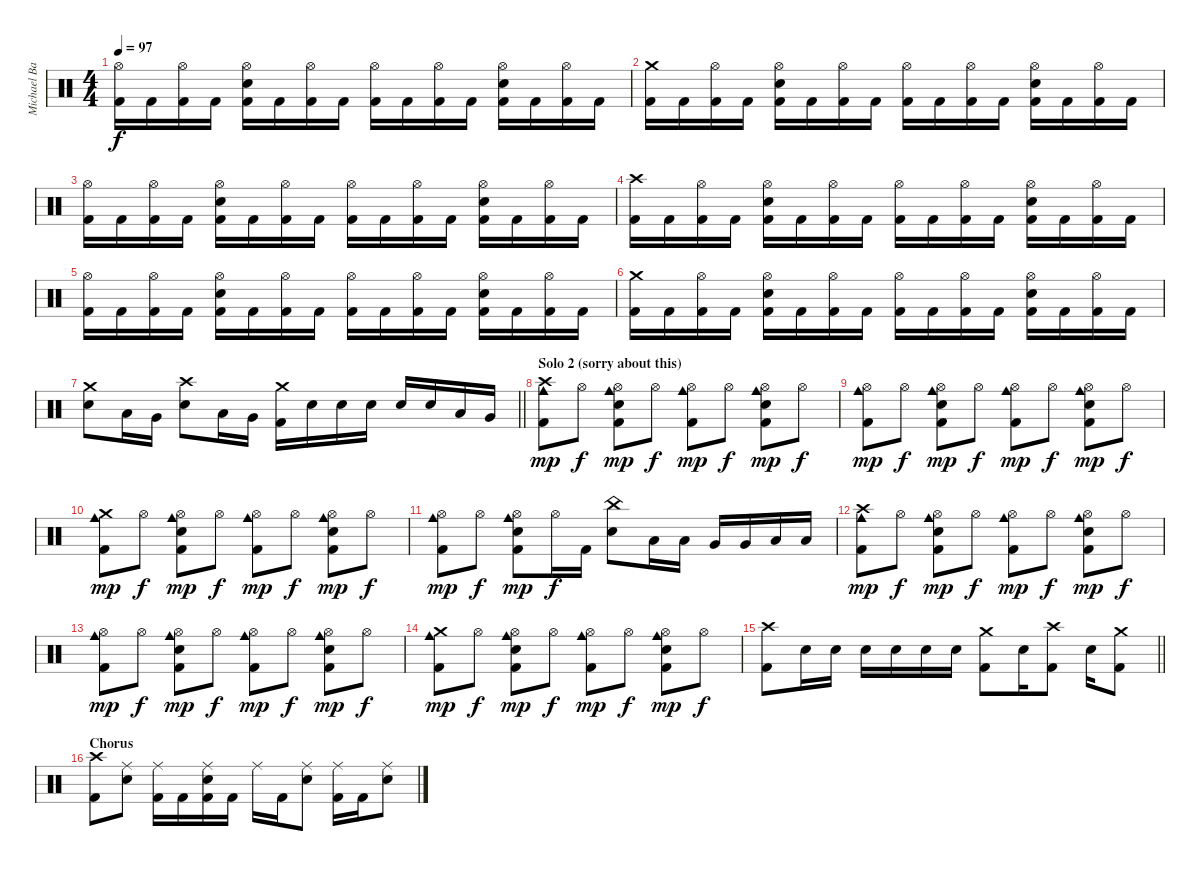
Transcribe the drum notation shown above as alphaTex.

\track ("Michael Bartlett" "Michael Ba") {instrument percussion}
\staff {score}
\articulation defaults
\ts (4 4)
\tempo 97
\clef neutral
\ks c
("Hi-Hat (open)" "Kick (hit) 2").16{dy f} "Kick (hit) 2".16 ("Hi-Hat (open)" "Kick (hit) 2").16 "Kick (hit) 2".16 ("Snare (hit) 2" "Hi-Hat (open)" "Kick (hit) 2").16 "Kick (hit) 2".16 ("Hi-Hat (open)" "Kick (hit) 2").16 "Kick (hit) 2".16 ("Hi-Hat (open)" "Kick (hit) 2").16 "Kick (hit) 2".16 ("Hi-Hat (open)" "Kick (hit) 2").16 "Kick (hit) 2".16 ("Snare (hit) 2" "Hi-Hat (open)" "Kick (hit) 2").16 "Kick (hit) 2".16 ("Hi-Hat (open)" "Kick (hit) 2").16 "Kick (hit) 2".16 |
("Crash medium (hit)" "Kick (hit) 2").16 "Kick (hit) 2".16 ("Hi-Hat (open)" "Kick (hit) 2").16 "Kick (hit) 2".16 ("Snare (hit) 2" "Hi-Hat (open)" "Kick (hit) 2").16 "Kick (hit) 2".16 ("Hi-Hat (open)" "Kick (hit) 2").16 "Kick (hit) 2".16 ("Hi-Hat (open)" "Kick (hit) 2").16 "Kick (hit) 2".16 ("Hi-Hat (open)" "Kick (hit) 2").16 "Kick (hit) 2".16 ("Snare (hit) 2" "Hi-Hat (open)" "Kick (hit) 2").16 "Kick (hit) 2".16 ("Hi-Hat (open)" "Kick (hit) 2").16 "Kick (hit) 2".16 |
("Hi-Hat (open)" "Kick (hit) 2").16 "Kick (hit) 2".16 ("Hi-Hat (open)" "Kick (hit) 2").16 "Kick (hit) 2".16 ("Snare (hit) 2" "Hi-Hat (open)" "Kick (hit) 2").16 "Kick (hit) 2".16 ("Hi-Hat (open)" "Kick (hit) 2").16 "Kick (hit) 2".16 ("Hi-Hat (open)" "Kick (hit) 2").16 "Kick (hit) 2".16 ("Hi-Hat (open)" "Kick (hit) 2").16 "Kick (hit) 2".16 ("Snare (hit) 2" "Hi-Hat (open)" "Kick (hit) 2").16 "Kick (hit) 2".16 ("Hi-Hat (open)" "Kick (hit) 2").16 "Kick (hit) 2".16 |
("Crash high (hit)" "Kick (hit) 2").16 "Kick (hit) 2".16 ("Hi-Hat (open)" "Kick (hit) 2").16 "Kick (hit) 2".16 ("Snare (hit) 2" "Hi-Hat (open)" "Kick (hit) 2").16 "Kick (hit) 2".16 ("Hi-Hat (open)" "Kick (hit) 2").16 "Kick (hit) 2".16 ("Hi-Hat (open)" "Kick (hit) 2").16 "Kick (hit) 2".16 ("Hi-Hat (open)" "Kick (hit) 2").16 "Kick (hit) 2".16 ("Snare (hit) 2" "Hi-Hat (open)" "Kick (hit) 2").16 "Kick (hit) 2".16 ("Hi-Hat (open)" "Kick (hit) 2").16 "Kick (hit) 2".16 |
("Hi-Hat (open)" "Kick (hit) 2").16 "Kick (hit) 2".16 ("Hi-Hat (open)" "Kick (hit) 2").16 "Kick (hit) 2".16 ("Snare (hit) 2" "Hi-Hat (open)" "Kick (hit) 2").16 "Kick (hit) 2".16 ("Hi-Hat (open)" "Kick (hit) 2").16 "Kick (hit) 2".16 ("Hi-Hat (open)" "Kick (hit) 2").16 "Kick (hit) 2".16 ("Hi-Hat (open)" "Kick (hit) 2").16 "Kick (hit) 2".16 ("Snare (hit) 2" "Hi-Hat (open)" "Kick (hit) 2").16 "Kick (hit) 2".16 ("Hi-Hat (open)" "Kick (hit) 2").16 "Kick (hit) 2".16 |
("Crash medium (hit)" "Kick (hit) 2").16 "Kick (hit) 2".16 ("Hi-Hat (open)" "Kick (hit) 2").16 "Kick (hit) 2".16 ("Snare (hit) 2" "Hi-Hat (open)" "Kick (hit) 2").16 "Kick (hit) 2".16 ("Hi-Hat (open)" "Kick (hit) 2").16 "Kick (hit) 2".16 ("Hi-Hat (open)" "Kick (hit) 2").16 "Kick (hit) 2".16 ("Hi-Hat (open)" "Kick (hit) 2").16 "Kick (hit) 2".16 ("Snare (hit) 2" "Hi-Hat (open)" "Kick (hit) 2").16 "Kick (hit) 2".16 ("Hi-Hat (open)" "Kick (hit) 2").16 "Kick (hit) 2".16 |
\barLineRight lightlight
("Crash medium (hit)" "Snare (hit) 2").8 "Low Tom (hit)".16 "Very Low Tom (hit)".16 ("Crash high (hit)" "Snare (hit) 2").8 "Low Tom (hit)".16 "Very Low Tom (hit)".16 ("Crash medium (hit)" "Kick (hit) 2").16 "Snare (hit) 2".16 "Snare (hit) 2".16 "Snare (hit) 2".16 "Snare (hit) 2".16 "Snare (hit) 2".16 "Low Tom (hit)".16 "Very Low Tom (hit)".16 |
\section ("" "Solo 2 (sorry about this)")
("Crash high (hit)" "Cowbell medium (hit)" "Kick (hit) 2").8{dy mp} "Hi-Hat (open)".8{dy f} ("Snare (hit) 2" "Hi-Hat (open)" "Cowbell medium (hit)" "Kick (hit) 2").8{dy mp} "Hi-Hat (open)".8{dy f} ("Hi-Hat (open)" "Cowbell medium (hit)" "Kick (hit) 2").8{dy mp} "Hi-Hat (open)".8{dy f} ("Snare (hit) 2" "Hi-Hat (open)" "Cowbell medium (hit)" "Kick (hit) 2").8{dy mp} "Hi-Hat (open)".8{dy f} |
("Hi-Hat (open)" "Cowbell medium (hit)" "Kick (hit) 2").8{dy mp} "Hi-Hat (open)".8{dy f} ("Snare (hit) 2" "Hi-Hat (open)" "Cowbell medium (hit)" "Kick (hit) 2").8{dy mp} "Hi-Hat (open)".8{dy f} ("Hi-Hat (open)" "Cowbell medium (hit)" "Kick (hit) 2").8{dy mp} "Hi-Hat (open)".8{dy f} ("Snare (hit) 2" "Hi-Hat (open)" "Cowbell medium (hit)" "Kick (hit) 2").8{dy mp} "Hi-Hat (open)".8{dy f} |
("Crash medium (hit)" "Cowbell medium (hit)" "Kick (hit) 2").8{dy mp} "Hi-Hat (open)".8{dy f} ("Snare (hit) 2" "Hi-Hat (open)" "Cowbell medium (hit)" "Kick (hit) 2").8{dy mp} "Hi-Hat (open)".8{dy f} ("Hi-Hat (open)" "Cowbell medium (hit)" "Kick (hit) 2").8{dy mp} "Hi-Hat (open)".8{dy f} ("Snare (hit) 2" "Hi-Hat (open)" "Cowbell medium (hit)" "Kick (hit) 2").8{dy mp} "Hi-Hat (open)".8{dy f} |
("Hi-Hat (open)" "Cowbell medium (hit)" "Kick (hit) 2").8{dy mp} "Hi-Hat (open)".8{dy f} ("Snare (hit) 2" "Hi-Hat (open)" "Cowbell medium (hit)" "Kick (hit) 2").8{dy mp} "Hi-Hat (open)".16{dy f} "Kick (hit) 2".16 ("China (hit)" "Snare (hit) 2").8 "Low Tom (hit)".16 "Low Tom (hit)".16 "Very Low Tom (hit)".16 "Very Low Tom (hit)".16 "Low Floor Tom (hit)".16 "Low Floor Tom (hit)".16 |
("Crash high (hit)" "Cowbell medium (hit)" "Kick (hit) 2").8{dy mp} "Hi-Hat (open)".8{dy f} ("Snare (hit) 2" "Hi-Hat (open)" "Cowbell medium (hit)" "Kick (hit) 2").8{dy mp} "Hi-Hat (open)".8{dy f} ("Hi-Hat (open)" "Cowbell medium (hit)" "Kick (hit) 2").8{dy mp} "Hi-Hat (open)".8{dy f} ("Snare (hit) 2" "Hi-Hat (open)" "Cowbell medium (hit)" "Kick (hit) 2").8{dy mp} "Hi-Hat (open)".8{dy f} |
("Hi-Hat (open)" "Cowbell medium (hit)" "Kick (hit) 2").8{dy mp} "Hi-Hat (open)".8{dy f} ("Snare (hit) 2" "Hi-Hat (open)" "Cowbell medium (hit)" "Kick (hit) 2").8{dy mp} "Hi-Hat (open)".8{dy f} ("Hi-Hat (open)" "Cowbell medium (hit)" "Kick (hit) 2").8{dy mp} "Hi-Hat (open)".8{dy f} ("Snare (hit) 2" "Hi-Hat (open)" "Cowbell medium (hit)" "Kick (hit) 2").8{dy mp} "Hi-Hat (open)".8{dy f} |
("Crash medium (hit)" "Cowbell medium (hit)" "Kick (hit) 2").8{dy mp} "Hi-Hat (open)".8{dy f} ("Snare (hit) 2" "Hi-Hat (open)" "Cowbell medium (hit)" "Kick (hit) 2").8{dy mp} "Hi-Hat (open)".8{dy f} ("Hi-Hat (open)" "Cowbell medium (hit)" "Kick (hit) 2").8{dy mp} "Hi-Hat (open)".8{dy f} ("Snare (hit) 2" "Hi-Hat (open)" "Cowbell medium (hit)" "Kick (hit) 2").8{dy mp} "Hi-Hat (open)".8{dy f} |
\barLineRight lightlight
("Crash high (hit)" "Kick (hit) 2").8 "Snare (hit) 2".16 "Snare (hit) 2".16 "Snare (hit) 2".16 "Snare (hit) 2".16 "Snare (hit) 2".16 "Snare (hit) 2".16 ("Crash medium (hit)" "Kick (hit) 2").8 "Snare (hit) 2".16 ("Crash high (hit)" "Kick (hit) 2").8 "Snare (hit) 2".16 ("Crash medium (hit)" "Kick (hit) 2").8 |
\section ("" "Chorus")
("Crash high (hit)" "Kick (hit) 2").8 ("Snare (hit) 2" "Ride (middle)").8 ("Ride (middle)" "Kick (hit) 2").16 "Kick (hit) 2".16 ("Snare (hit) 2" "Ride (middle)" "Kick (hit) 2").16 "Kick (hit) 2".16 "Ride (middle)".16 "Kick (hit) 2".16 ("Snare (hit) 2" "Ride (middle)").8 ("Ride (middle)" "Kick (hit) 2").16 "Kick (hit) 2".16 ("Snare (hit) 2" "Ride (middle)").8
